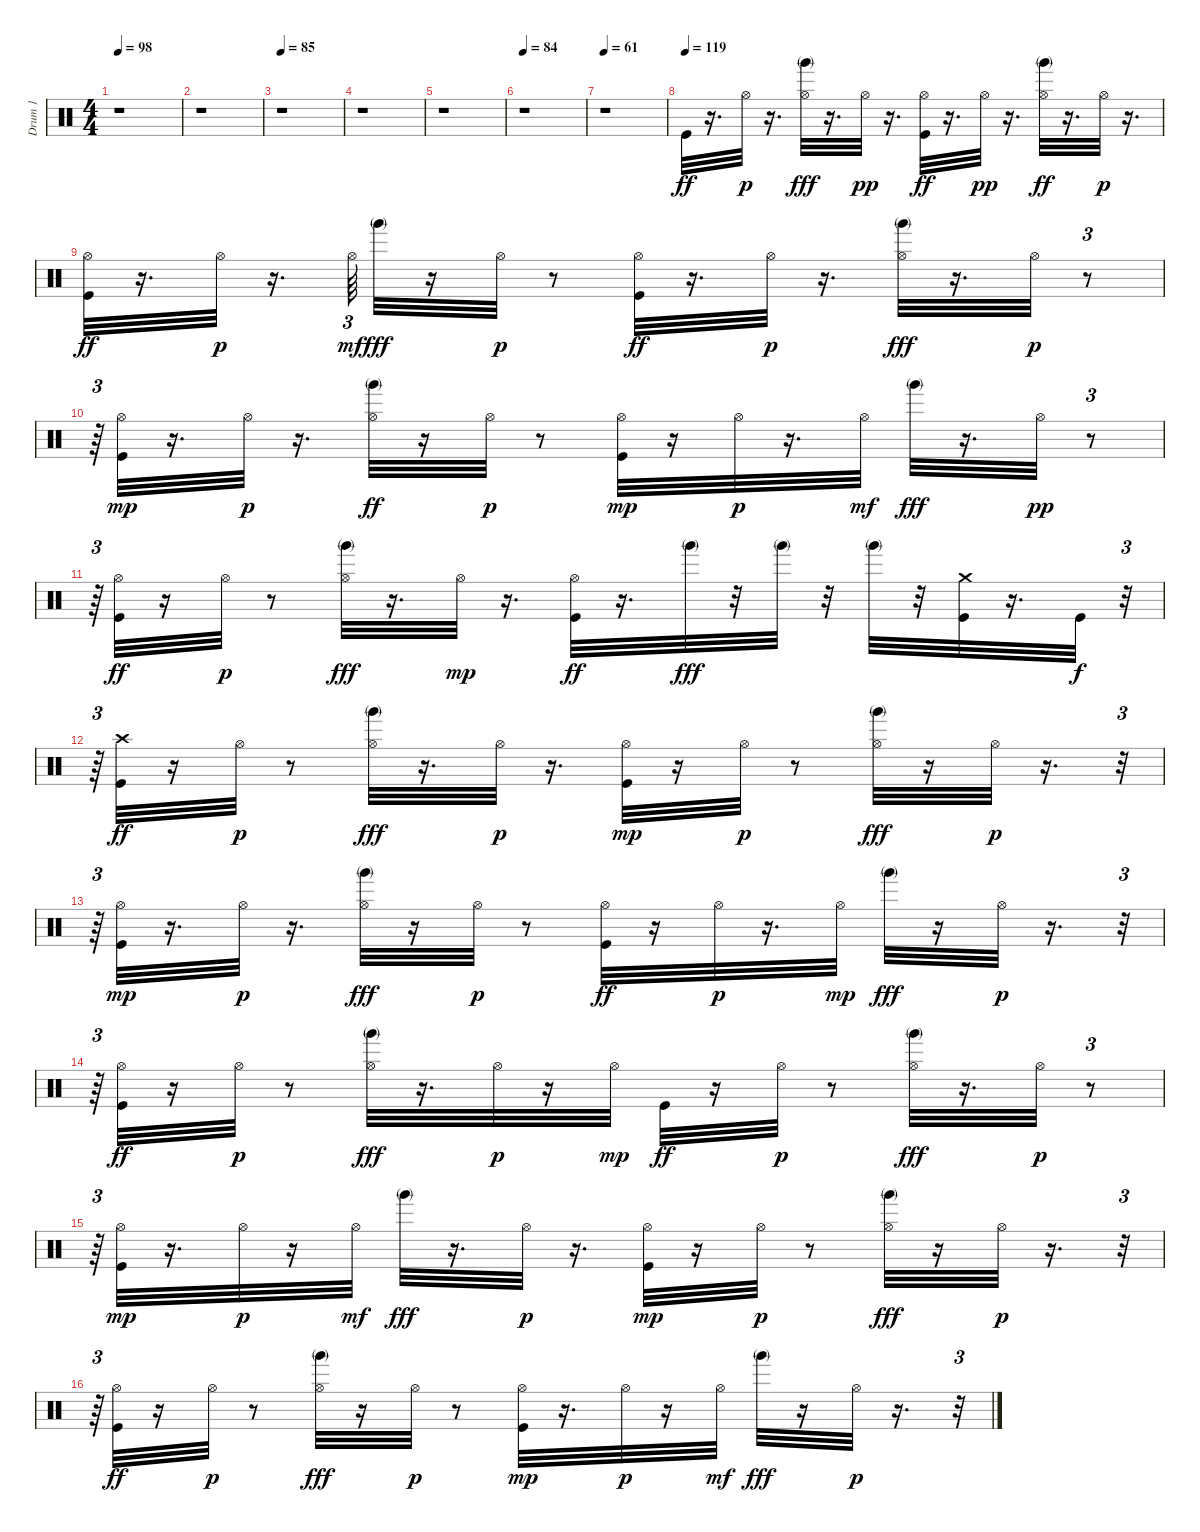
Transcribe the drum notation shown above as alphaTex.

\track ("Drum 1                          " "Drum 1    ") {instrument percussion}
\staff {score}
\articulation defaults
\ts (4 4)
\tempo 98
\clef neutral
\ks c
r.1{dy ff} |
r.1 |
\tempo 85
r.1 |
r.1 |
r.1 |
\tempo 84
r.1 |
\tempo 61
r.1 |
\tempo (119)
"Kick (hit)".32{balance 12} r.16{d} "Hi-Hat (open)".32{dy p} r.16{d} ("Hi-Hat (open)" "Hand (mute) 2").32{dy fff} r.16{d} "Hi-Hat (open)".32{dy pp} r.16{d} ("Hi-Hat (open)" "Kick (hit)").32{dy ff} r.16{d} "Hi-Hat (open)".32{dy pp} r.16{d} ("Hi-Hat (open)" "Hand (mute) 2").32{dy ff} r.16{d} "Hi-Hat (open)".32{dy p} r.16{d} |
("Hi-Hat (open)" "Kick (hit)").32{dy ff} r.16{d} "Hi-Hat (open)".32{dy p} r.16{d} "Hi-Hat (open)".64{tu (3 2) dy mf} "Hand (mute) 2".32{dy fff} r.16 "Hi-Hat (open)".32{dy p} r.8 ("Hi-Hat (open)" "Kick (hit)").32{dy ff} r.16{d} "Hi-Hat (open)".32{dy p} r.16{d} ("Hi-Hat (open)" "Hand (mute) 2").32{dy fff} r.16{d} "Hi-Hat (open)".32{dy p} r.8{tu (3 2)} |
r.64{tu (3 2)} ("Kick (hit)" "Hi-Hat (open)").32{dy mp} r.16{d} "Hi-Hat (open)".32{dy p} r.16{d} ("Hi-Hat (open)" "Hand (mute) 2").32{dy ff} r.16 "Hi-Hat (open)".32{dy p} r.8 ("Kick (hit)" "Hi-Hat (open)").32{dy mp} r.16 "Hi-Hat (open)".32{dy p} r.16{d} "Hi-Hat (open)".32{dy mf} "Hand (mute) 2".32{dy fff} r.16{d} "Hi-Hat (open)".32{dy pp} r.8{tu (3 2)} |
r.64{tu (3 2)} ("Hi-Hat (open)" "Kick (hit)").32{dy ff} r.16 "Hi-Hat (open)".32{dy p} r.8 ("Hi-Hat (open)" "Hand (mute) 2").32{dy fff} r.16{d} "Hi-Hat (open)".32{dy mp} r.16{d} ("Hi-Hat (open)" "Kick (hit)").32{dy ff} r.16{d} "Hand (mute) 2".32{dy fff} r.32 "Hand (mute) 2".32 r.32 "Hand (mute) 2".32 r.32 ("Crash medium (hit)" "Kick (hit)").32 r.16{d} "Kick (hit)".32{dy f} r.32{tu (3 2)} |
r.64{tu (3 2)} ("Kick (hit)" "Crash high (hit)").32{dy ff} r.16 "Hi-Hat (open)".32{dy p} r.8 ("Hi-Hat (open)" "Hand (mute) 2").32{dy fff} r.16{d} "Hi-Hat (open)".32{dy p} r.16{d} ("Kick (hit)" "Hi-Hat (open)").32{dy mp} r.16 "Hi-Hat (open)".32{dy p} r.8 ("Hi-Hat (open)" "Hand (mute) 2").32{dy fff} r.16 "Hi-Hat (open)".32{dy p} r.16{d} r.32{tu (3 2)} |
r.64{tu (3 2)} ("Kick (hit)" "Hi-Hat (open)").32{dy mp} r.16{d} "Hi-Hat (open)".32{dy p} r.16{d} ("Hi-Hat (open)" "Hand (mute) 2").32{dy fff} r.16 "Hi-Hat (open)".32{dy p} r.8 ("Hi-Hat (open)" "Kick (hit)").32{dy ff} r.16 "Hi-Hat (open)".32{dy p} r.16{d} "Hi-Hat (open)".32{dy mp} "Hand (mute) 2".32{dy fff} r.16 "Hi-Hat (open)".32{dy p} r.16{d} r.32{tu (3 2)} |
r.64{tu (3 2)} ("Hi-Hat (open)" "Kick (hit)").32{dy ff} r.16 "Hi-Hat (open)".32{dy p} r.8 ("Hi-Hat (open)" "Hand (mute) 2").32{dy fff} r.16{d} "Hi-Hat (open)".32{dy p} r.16 "Hi-Hat (open)".32{dy mp} "Kick (hit)".32{dy ff} r.16 "Hi-Hat (open)".32{dy p} r.8 ("Hi-Hat (open)" "Hand (mute) 2").32{dy fff} r.16{d} "Hi-Hat (open)".32{dy p} r.8{tu (3 2)} |
r.64{tu (3 2)} ("Kick (hit)" "Hi-Hat (open)").32{dy mp} r.16{d} "Hi-Hat (open)".32{dy p} r.16 "Hi-Hat (open)".32{dy mf} "Hand (mute) 2".32{dy fff} r.16{d} "Hi-Hat (open)".32{dy p} r.16{d} ("Kick (hit)" "Hi-Hat (open)").32{dy mp} r.16 "Hi-Hat (open)".32{dy p} r.8 ("Hi-Hat (open)" "Hand (mute) 2").32{dy fff} r.16 "Hi-Hat (open)".32{dy p} r.16{d} r.32{tu (3 2)} |
r.64{tu (3 2)} ("Hi-Hat (open)" "Kick (hit)").32{dy ff} r.16 "Hi-Hat (open)".32{dy p} r.8 ("Hi-Hat (open)" "Hand (mute) 2").32{dy fff} r.16 "Hi-Hat (open)".32{dy p} r.8 ("Kick (hit)" "Hi-Hat (open)").32{dy mp} r.16{d} "Hi-Hat (open)".32{dy p} r.16 "Hi-Hat (open)".32{dy mf} "Hand (mute) 2".32{dy fff} r.16 "Hi-Hat (open)".32{dy p} r.16{d} r.32{tu (3 2)}
